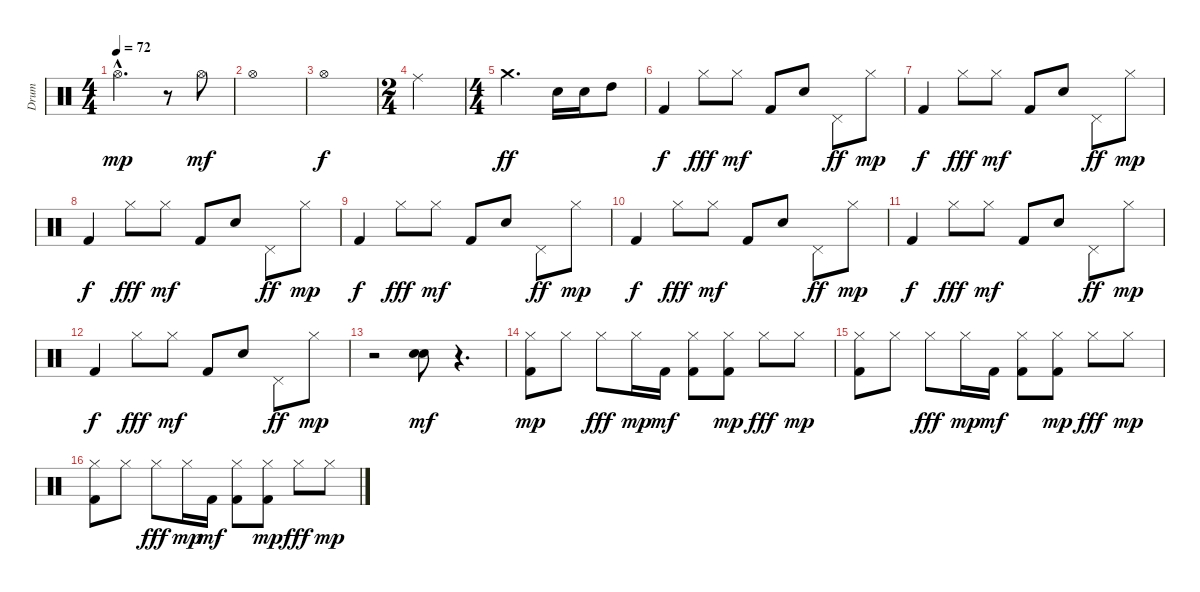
\track ("Drum" "Drum") {instrument percussion}
\staff {score}
\articulation defaults
\ts (4 4)
\tempo 72
\clef neutral
\ks c "Hi-Hat (open)"{hac}.2{d dy mp}
r.8 "Hi-Hat (open)".8{dy mf} |
"Hi-Hat (open)".1 |
"Hi-Hat (open)".1{dy f} |
\ts (2 4)
"Ride (middle)".2 |
\ts (4 4)
"Crash medium (hit)".2{d dy ff} "Snare (hit) 2".16 "Electric Snare (hit)".16 "High Tom (hit)".8 |
"Kick (hit) 2".4{dy f} "Hi-Hat (closed)".8{dy fff} "Hi-Hat (closed)".8{dy mf} "Kick (hit) 2".8 "Snare (hit) 2".8 "Pedal Hi-Hat (hit)".8{dy ff} "Hi-Hat (closed)".8{dy mp} |
"Kick (hit) 2".4{dy f} "Hi-Hat (closed)".8{dy fff} "Hi-Hat (closed)".8{dy mf} "Kick (hit) 2".8 "Snare (hit) 2".8 "Pedal Hi-Hat (hit)".8{dy ff} "Hi-Hat (closed)".8{dy mp} |
"Kick (hit) 2".4{dy f} "Hi-Hat (closed)".8{dy fff} "Hi-Hat (closed)".8{dy mf} "Kick (hit) 2".8 "Snare (hit) 2".8 "Pedal Hi-Hat (hit)".8{dy ff} "Hi-Hat (closed)".8{dy mp} |
"Kick (hit) 2".4{dy f} "Hi-Hat (closed)".8{dy fff} "Hi-Hat (closed)".8{dy mf} "Kick (hit) 2".8 "Snare (hit) 2".8 "Pedal Hi-Hat (hit)".8{dy ff} "Hi-Hat (closed)".8{dy mp} |
"Kick (hit) 2".4{dy f} "Hi-Hat (closed)".8{dy fff} "Hi-Hat (closed)".8{dy mf} "Kick (hit) 2".8 "Snare (hit) 2".8 "Pedal Hi-Hat (hit)".8{dy ff} "Hi-Hat (closed)".8{dy mp} |
"Kick (hit) 2".4{dy f} "Hi-Hat (closed)".8{dy fff} "Hi-Hat (closed)".8{dy mf} "Kick (hit) 2".8 "Snare (hit) 2".8 "Pedal Hi-Hat (hit)".8{dy ff} "Hi-Hat (closed)".8{dy mp} |
"Kick (hit) 2".4{dy f} "Hi-Hat (closed)".8{dy fff} "Hi-Hat (closed)".8{dy mf} "Kick (hit) 2".8 "Snare (hit) 2".8 "Pedal Hi-Hat (hit)".8{dy ff} "Hi-Hat (closed)".8{dy mp} |
r.2 ("Electric Snare (hit)" "Snare (hit) 2").8{dy mf} r.4{d} |
("Hi-Hat (closed)" "Kick (hit) 2").8{dy mp} "Hi-Hat (closed)".8 "Hi-Hat (closed)".8{dy fff} "Hi-Hat (closed)".16{dy mp} "Kick (hit) 2".16{dy mf} ("Hi-Hat (closed)" "Kick (hit) 2").8 ("Hi-Hat (closed)" "Kick (hit) 2").8{dy mp} "Hi-Hat (closed)".8{dy fff} "Hi-Hat (closed)".8{dy mp} |
("Hi-Hat (closed)" "Kick (hit) 2").8 "Hi-Hat (closed)".8 "Hi-Hat (closed)".8{dy fff} "Hi-Hat (closed)".16{dy mp} "Kick (hit) 2".16{dy mf} ("Hi-Hat (closed)" "Kick (hit) 2").8 ("Hi-Hat (closed)" "Kick (hit) 2").8{dy mp} "Hi-Hat (closed)".8{dy fff} "Hi-Hat (closed)".8{dy mp} |
("Hi-Hat (closed)" "Kick (hit) 2").8 "Hi-Hat (closed)".8 "Hi-Hat (closed)".8{dy fff} "Hi-Hat (closed)".16{dy mp} "Kick (hit) 2".16{dy mf} ("Hi-Hat (closed)" "Kick (hit) 2").8 ("Hi-Hat (closed)" "Kick (hit) 2").8{dy mp} "Hi-Hat (closed)".8{dy fff} "Hi-Hat (closed)".8{dy mp}
